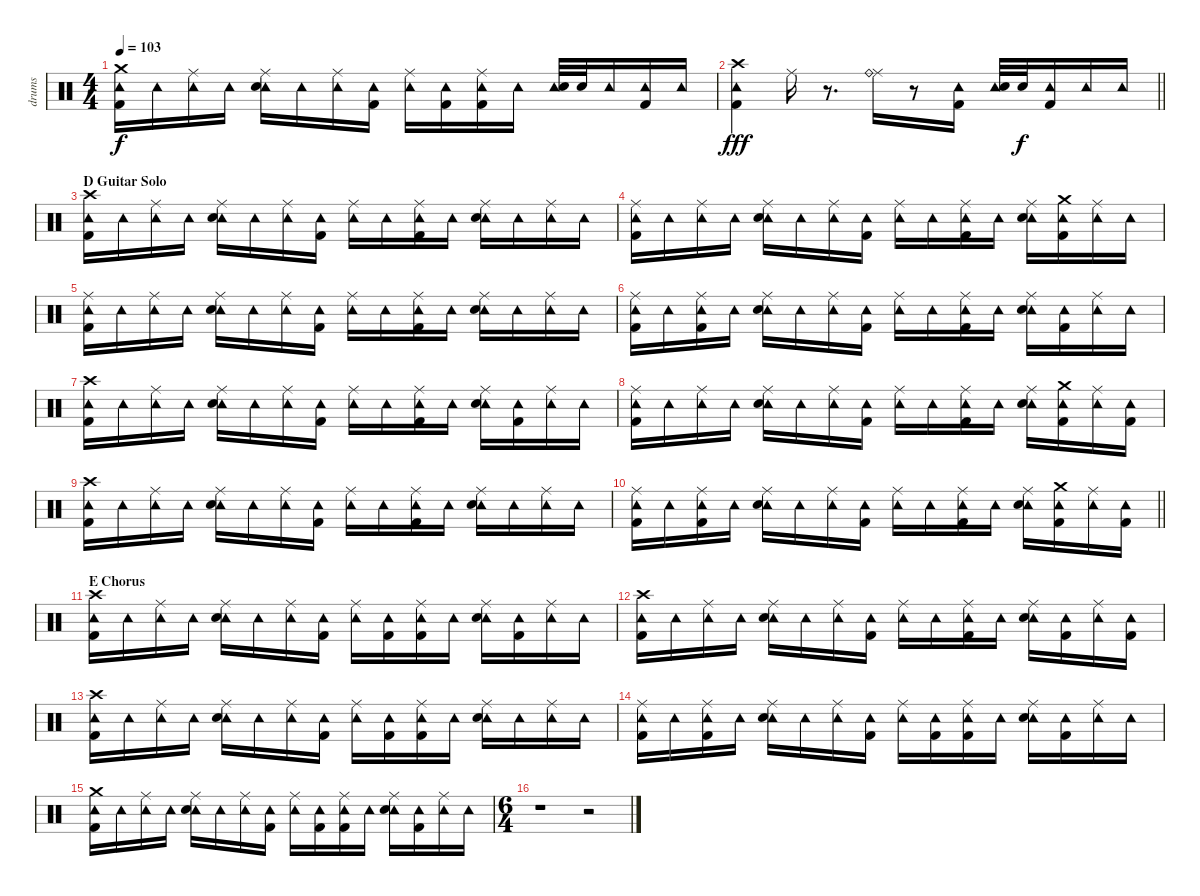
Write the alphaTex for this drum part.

\track ("drums" "drums") {instrument percussion}
\staff {score}
\articulation defaults
\ts (4 4)
\tempo 103
\clef neutral
\ks c
("Crash medium (hit)" "Tambourine (hit)" "Kick (hit) 2").16{dy f} "Tambourine (hit)".16 ("Ride (middle)" "Tambourine (hit)").16 "Tambourine (hit)".16 ("Ride (middle)" "Tambourine (hit)" "Snare (hit) 2").16 "Tambourine (hit)".16 ("Ride (middle)" "Tambourine (hit)").16 ("Tambourine (hit)" "Kick (hit) 2").16 ("Ride (middle)" "Tambourine (hit)").16 ("Tambourine (hit)" "Kick (hit) 2").16 ("Ride (middle)" "Tambourine (hit)" "Kick (hit) 2").16 "Tambourine (hit)".16 ("Tambourine (hit)" "Snare (hit) 2").32 "Snare (hit) 2".32 "Tambourine (hit)".16 ("Tambourine (hit)" "Kick (hit) 2").16 "Tambourine (hit)".16 |
\barLineRight lightlight
("Crash high (hit)" "Tambourine (hit)" "Kick (hit) 2").4{dy fff} "Ride (middle)".16 r.8{d} ("Ride (middle)" "Ride (bell)").16 r.8 ("Kick (hit) 2" "Tambourine (hit)").16 ("Tambourine (hit)" "Snare (hit) 2").32 "Snare (hit) 2".32{dy f} ("Tambourine (hit)" "Kick (hit) 2").16 "Tambourine (hit)".16 "Tambourine (hit)".16 |
\section ("" "D Guitar Solo")
("Crash high (hit)" "Tambourine (hit)" "Kick (hit) 2").16 "Tambourine (hit)".16 ("Ride (middle)" "Tambourine (hit)").16 "Tambourine (hit)".16 ("Ride (middle)" "Tambourine (hit)" "Snare (hit) 2").16 "Tambourine (hit)".16 ("Ride (middle)" "Tambourine (hit)").16 ("Tambourine (hit)" "Kick (hit) 2").16 ("Ride (middle)" "Tambourine (hit)").16 "Tambourine (hit)".16 ("Ride (middle)" "Tambourine (hit)" "Kick (hit) 2").16 "Tambourine (hit)".16 ("Ride (middle)" "Tambourine (hit)" "Snare (hit) 2").16 "Tambourine (hit)".16 ("Ride (middle)" "Tambourine (hit)").16 "Tambourine (hit)".16 |
("Ride (middle)" "Tambourine (hit)" "Kick (hit) 2").16 "Tambourine (hit)".16 ("Ride (middle)" "Tambourine (hit)").16 "Tambourine (hit)".16 ("Ride (middle)" "Tambourine (hit)" "Snare (hit) 2").16 "Tambourine (hit)".16 ("Ride (middle)" "Tambourine (hit)").16 ("Tambourine (hit)" "Kick (hit) 2").16 ("Ride (middle)" "Tambourine (hit)").16 "Tambourine (hit)".16 ("Ride (middle)" "Tambourine (hit)" "Kick (hit) 2").16 "Tambourine (hit)".16 ("Ride (middle)" "Tambourine (hit)" "Snare (hit) 2").16 ("Crash medium (hit)" "Tambourine (hit)" "Kick (hit) 2").16 ("Ride (middle)" "Tambourine (hit)").16 "Tambourine (hit)".16 |
("Ride (middle)" "Tambourine (hit)" "Kick (hit) 2").16 "Tambourine (hit)".16 ("Ride (middle)" "Tambourine (hit)").16 "Tambourine (hit)".16 ("Ride (middle)" "Tambourine (hit)" "Snare (hit) 2").16 "Tambourine (hit)".16 ("Ride (middle)" "Tambourine (hit)").16 ("Tambourine (hit)" "Kick (hit) 2").16 ("Ride (middle)" "Tambourine (hit)").16 "Tambourine (hit)".16 ("Ride (middle)" "Tambourine (hit)" "Kick (hit) 2").16 "Tambourine (hit)".16 ("Ride (middle)" "Tambourine (hit)" "Snare (hit) 2").16 "Tambourine (hit)".16 ("Ride (middle)" "Tambourine (hit)").16 "Tambourine (hit)".16 |
("Ride (middle)" "Tambourine (hit)" "Kick (hit) 2").16 "Tambourine (hit)".16 ("Ride (middle)" "Tambourine (hit)" "Kick (hit) 2").16 "Tambourine (hit)".16 ("Ride (middle)" "Tambourine (hit)" "Snare (hit) 2").16 "Tambourine (hit)".16 ("Ride (middle)" "Tambourine (hit)").16 ("Tambourine (hit)" "Kick (hit) 2").16 ("Ride (middle)" "Tambourine (hit)").16 "Tambourine (hit)".16 ("Ride (middle)" "Tambourine (hit)" "Kick (hit) 2").16 "Tambourine (hit)".16 ("Ride (middle)" "Tambourine (hit)" "Snare (hit) 2").16 ("Tambourine (hit)" "Kick (hit) 2").16 ("Ride (middle)" "Tambourine (hit)").16 "Tambourine (hit)".16 |
("Crash high (hit)" "Tambourine (hit)" "Kick (hit) 2").16 "Tambourine (hit)".16 ("Ride (middle)" "Tambourine (hit)").16 "Tambourine (hit)".16 ("Ride (middle)" "Tambourine (hit)" "Snare (hit) 2").16 "Tambourine (hit)".16 ("Ride (middle)" "Tambourine (hit)").16 ("Tambourine (hit)" "Kick (hit) 2").16 ("Ride (middle)" "Tambourine (hit)").16 "Tambourine (hit)".16 ("Ride (middle)" "Tambourine (hit)" "Kick (hit) 2").16 "Tambourine (hit)".16 ("Ride (middle)" "Tambourine (hit)" "Snare (hit) 2").16 ("Tambourine (hit)" "Kick (hit) 2").16 ("Ride (middle)" "Tambourine (hit)").16 "Tambourine (hit)".16 |
("Ride (middle)" "Tambourine (hit)" "Kick (hit) 2").16 "Tambourine (hit)".16 ("Ride (middle)" "Tambourine (hit)").16 "Tambourine (hit)".16 ("Ride (middle)" "Tambourine (hit)" "Snare (hit) 2").16 "Tambourine (hit)".16 ("Ride (middle)" "Tambourine (hit)").16 ("Tambourine (hit)" "Kick (hit) 2").16 ("Ride (middle)" "Tambourine (hit)").16 "Tambourine (hit)".16 ("Ride (middle)" "Tambourine (hit)" "Kick (hit) 2").16 "Tambourine (hit)".16 ("Ride (middle)" "Tambourine (hit)" "Snare (hit) 2").16 ("Crash medium (hit)" "Tambourine (hit)" "Kick (hit) 2").16 ("Ride (middle)" "Tambourine (hit)").16 ("Tambourine (hit)" "Kick (hit) 2").16 |
("Crash high (hit)" "Tambourine (hit)" "Kick (hit) 2").16 "Tambourine (hit)".16 ("Ride (middle)" "Tambourine (hit)").16 "Tambourine (hit)".16 ("Ride (middle)" "Tambourine (hit)" "Snare (hit) 2").16 "Tambourine (hit)".16 ("Ride (middle)" "Tambourine (hit)").16 ("Tambourine (hit)" "Kick (hit) 2").16 ("Ride (middle)" "Tambourine (hit)").16 "Tambourine (hit)".16 ("Ride (middle)" "Tambourine (hit)" "Kick (hit) 2").16 "Tambourine (hit)".16 ("Ride (middle)" "Tambourine (hit)" "Snare (hit) 2").16 "Tambourine (hit)".16 ("Ride (middle)" "Tambourine (hit)").16 "Tambourine (hit)".16 |
\barLineRight lightlight
("Ride (middle)" "Tambourine (hit)" "Kick (hit) 2").16 "Tambourine (hit)".16 ("Ride (middle)" "Tambourine (hit)" "Kick (hit) 2").16 "Tambourine (hit)".16 ("Ride (middle)" "Tambourine (hit)" "Snare (hit) 2").16 "Tambourine (hit)".16 ("Ride (middle)" "Tambourine (hit)").16 ("Tambourine (hit)" "Kick (hit) 2").16 ("Ride (middle)" "Tambourine (hit)").16 "Tambourine (hit)".16 ("Ride (middle)" "Tambourine (hit)" "Kick (hit) 2").16 "Tambourine (hit)".16 ("Ride (middle)" "Tambourine (hit)" "Snare (hit) 2").16 ("Crash medium (hit)" "Tambourine (hit)" "Kick (hit) 2").16 ("Ride (middle)" "Tambourine (hit)").16 ("Tambourine (hit)" "Kick (hit) 2").16 |
\section ("" "E Chorus")
("Crash high (hit)" "Tambourine (hit)" "Kick (hit) 2").16 "Tambourine (hit)".16 ("Ride (middle)" "Tambourine (hit)").16 "Tambourine (hit)".16 ("Ride (middle)" "Tambourine (hit)" "Snare (hit) 2").16 "Tambourine (hit)".16 ("Ride (middle)" "Tambourine (hit)").16 ("Tambourine (hit)" "Kick (hit) 2").16 ("Ride (middle)" "Tambourine (hit)").16 ("Tambourine (hit)" "Kick (hit) 2").16 ("Ride (middle)" "Tambourine (hit)" "Kick (hit) 2").16 "Tambourine (hit)".16 ("Ride (middle)" "Tambourine (hit)" "Snare (hit) 2").16 ("Tambourine (hit)" "Kick (hit) 2").16 ("Ride (middle)" "Tambourine (hit)").16 "Tambourine (hit)".16 |
("Crash high (hit)" "Tambourine (hit)" "Kick (hit) 2").16 "Tambourine (hit)".16 ("Ride (middle)" "Tambourine (hit)").16 "Tambourine (hit)".16 ("Ride (middle)" "Tambourine (hit)" "Snare (hit) 2").16 "Tambourine (hit)".16 ("Ride (middle)" "Tambourine (hit)").16 ("Tambourine (hit)" "Kick (hit) 2").16 ("Ride (middle)" "Tambourine (hit)").16 "Tambourine (hit)".16 ("Ride (middle)" "Tambourine (hit)" "Kick (hit) 2").16 "Tambourine (hit)".16 ("Ride (middle)" "Tambourine (hit)" "Snare (hit) 2").16 ("Tambourine (hit)" "Kick (hit) 2").16 ("Ride (middle)" "Tambourine (hit)").16 ("Tambourine (hit)" "Kick (hit) 2").16 |
("Crash high (hit)" "Tambourine (hit)" "Kick (hit) 2").16 "Tambourine (hit)".16 ("Ride (middle)" "Tambourine (hit)").16 "Tambourine (hit)".16 ("Ride (middle)" "Tambourine (hit)" "Snare (hit) 2").16 "Tambourine (hit)".16 ("Ride (middle)" "Tambourine (hit)").16 ("Tambourine (hit)" "Kick (hit) 2").16 ("Ride (middle)" "Tambourine (hit)").16 ("Tambourine (hit)" "Kick (hit) 2").16 ("Ride (middle)" "Tambourine (hit)" "Kick (hit) 2").16 "Tambourine (hit)".16 ("Ride (middle)" "Tambourine (hit)" "Snare (hit) 2").16 "Tambourine (hit)".16 ("Ride (middle)" "Tambourine (hit)").16 "Tambourine (hit)".16 |
("Ride (middle)" "Tambourine (hit)" "Kick (hit) 2").16 "Tambourine (hit)".16 ("Ride (middle)" "Tambourine (hit)" "Kick (hit) 2").16 "Tambourine (hit)".16 ("Ride (middle)" "Tambourine (hit)" "Snare (hit) 2").16 "Tambourine (hit)".16 ("Ride (middle)" "Tambourine (hit)").16 ("Tambourine (hit)" "Kick (hit) 2").16 ("Ride (middle)" "Tambourine (hit)").16 ("Tambourine (hit)" "Kick (hit) 2").16 ("Ride (middle)" "Tambourine (hit)" "Kick (hit) 2").16 "Tambourine (hit)".16 ("Ride (middle)" "Tambourine (hit)" "Snare (hit) 2").16 ("Tambourine (hit)" "Kick (hit) 2").16 ("Ride (middle)" "Tambourine (hit)").16 "Tambourine (hit)".16 |
("Crash medium (hit)" "Tambourine (hit)" "Kick (hit) 2").16 "Tambourine (hit)".16 ("Ride (middle)" "Tambourine (hit)").16 "Tambourine (hit)".16 ("Ride (middle)" "Tambourine (hit)" "Snare (hit) 2").16 "Tambourine (hit)".16 ("Ride (middle)" "Tambourine (hit)").16 ("Tambourine (hit)" "Kick (hit) 2").16 ("Ride (middle)" "Tambourine (hit)").16 ("Tambourine (hit)" "Kick (hit) 2").16 ("Ride (middle)" "Tambourine (hit)" "Kick (hit) 2").16 "Tambourine (hit)".16 ("Ride (middle)" "Tambourine (hit)" "Snare (hit) 2").16 ("Tambourine (hit)" "Kick (hit) 2").16 ("Ride (middle)" "Tambourine (hit)").16 "Tambourine (hit)".16 |
\ts (6 4)
r.1 r.2
